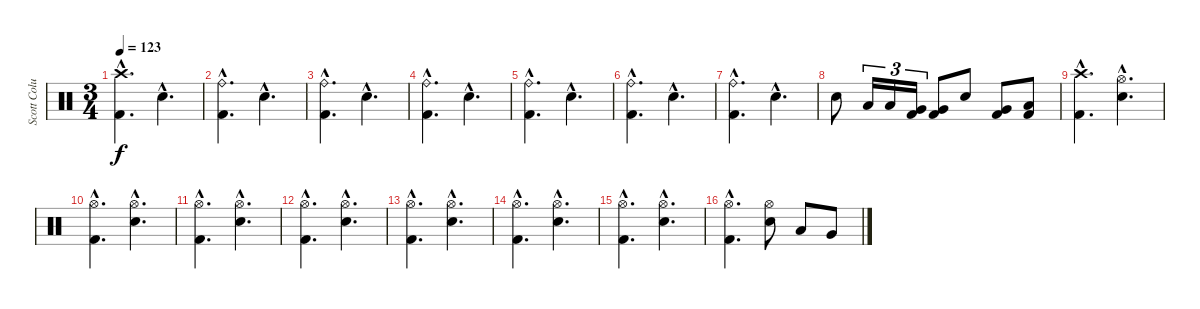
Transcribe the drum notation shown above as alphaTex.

\track ("Scott Columbus" "Scott Colu") {instrument percussion}
\staff {score}
\articulation defaults
\ts (3 4)
\tempo 123
\clef neutral
\ks c
("Crash high (hit)"{hac} "Kick (hit) 2"{hac}).4{d dy f} "Snare (hit) 2"{hac}.4{d} |
("Ride (bell)"{hac} "Kick (hit) 2"{hac}).4{d} "Snare (hit) 2"{hac}.4{d} |
("Ride (bell)"{hac} "Kick (hit) 2"{hac}).4{d} "Snare (hit) 2"{hac}.4{d} |
("Ride (bell)"{hac} "Kick (hit) 2"{hac}).4{d} "Snare (hit) 2"{hac}.4{d} |
("Ride (bell)"{hac} "Kick (hit) 2"{hac}).4{d} "Snare (hit) 2"{hac}.4{d} |
("Ride (bell)"{hac} "Kick (hit) 2"{hac}).4{d} "Snare (hit) 2"{hac}.4{d} |
("Ride (bell)"{hac} "Kick (hit) 2"{hac}).4{d} "Snare (hit) 2"{hac}.4{d} |
"Snare (hit) 2".8 "Low Tom (hit)".16{tu (3 2)} "Low Tom (hit)".16{tu (3 2)} ("Very Low Tom (hit)" "Kick (hit) 2").16{tu (3 2)} ("Very Low Tom (hit)" "Kick (hit) 2").8 "Snare (hit) 2".8 ("Very Low Tom (hit)" "Kick (hit) 2").8 ("Low Floor Tom (hit)" "Kick (hit) 2").8 |
("Crash high (hit)"{hac} "Kick (hit) 2"{hac}).4{d} ("Hi-Hat (open)"{hac} "Snare (hit) 2"{hac}).4{d} |
("Hi-Hat (open)"{hac} "Kick (hit) 2"{hac}).4{d} ("Hi-Hat (open)"{hac} "Snare (hit) 2"{hac}).4{d} |
("Hi-Hat (open)"{hac} "Kick (hit) 2"{hac}).4{d} ("Hi-Hat (open)"{hac} "Snare (hit) 2"{hac}).4{d} |
("Hi-Hat (open)"{hac} "Kick (hit) 2"{hac}).4{d} ("Hi-Hat (open)"{hac} "Snare (hit) 2"{hac}).4{d} |
("Hi-Hat (open)"{hac} "Kick (hit) 2"{hac}).4{d} ("Hi-Hat (open)"{hac} "Snare (hit) 2"{hac}).4{d} |
("Hi-Hat (open)"{hac} "Kick (hit) 2"{hac}).4{d} ("Hi-Hat (open)"{hac} "Snare (hit) 2"{hac}).4{d} |
("Hi-Hat (open)"{hac} "Kick (hit) 2"{hac}).4{d} ("Hi-Hat (open)"{hac} "Snare (hit) 2"{hac}).4{d} |
("Hi-Hat (open)"{hac} "Kick (hit) 2"{hac}).4{d} ("Hi-Hat (open)" "Snare (hit) 2").8 "Low Tom (hit)".8 "Very Low Tom (hit)".8
